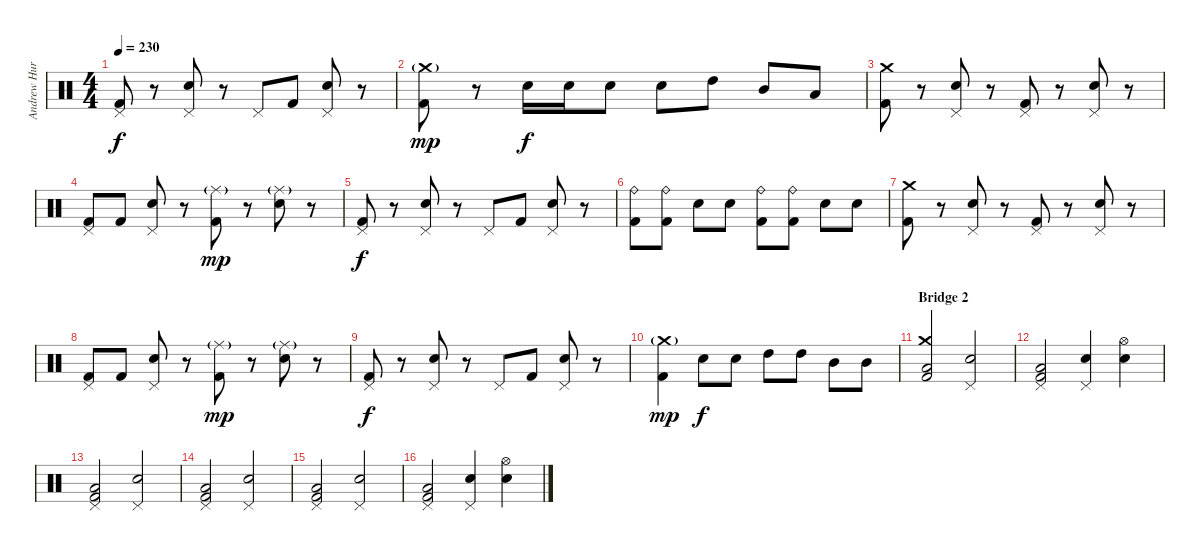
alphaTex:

\track ("Andrew Hurley (Drums)" "Andrew Hur") {instrument percussion}
\staff {score}
\articulation defaults
\ts (4 4)
\tempo 230
\clef neutral
\ks c
("Pedal Hi-Hat (hit)" "Kick (hit) 2").8{dy f} r.8 ("Pedal Hi-Hat (hit)" "Electric Snare (hit)").8 r.8 "Pedal Hi-Hat (hit)".8 "Kick (hit) 2".8 ("Pedal Hi-Hat (hit)" "Electric Snare (hit)").8 r.8 |
("Crash medium (hit)"{g} "Kick (hit) 2").8{dy mp} r.8 "Electric Snare (hit)".16{dy f} "Electric Snare (hit)".16 "Electric Snare (hit)".8 "Electric Snare (hit)".8 "High Tom (hit)".8 "Mid Tom (hit)".8 "Low Tom (hit)".8 |
("Crash medium (hit)" "Kick (hit) 2").8 r.8 ("Pedal Hi-Hat (hit)" "Electric Snare (hit)").8 r.8 ("Pedal Hi-Hat (hit)" "Kick (hit) 2").8 r.8 ("Pedal Hi-Hat (hit)" "Electric Snare (hit)").8 r.8 |
("Pedal Hi-Hat (hit)" "Kick (hit) 2").8 "Kick (hit) 2".8 ("Pedal Hi-Hat (hit)" "Electric Snare (hit)").8 r.8 ("Ride (middle)"{g} "Kick (hit) 2").8{dy mp} r.8 ("Ride (middle)"{g} "Electric Snare (hit)").8 r.8 |
("Pedal Hi-Hat (hit)" "Kick (hit) 2").8{dy f} r.8 ("Pedal Hi-Hat (hit)" "Electric Snare (hit)").8 r.8 "Pedal Hi-Hat (hit)".8 "Kick (hit) 2".8 ("Pedal Hi-Hat (hit)" "Electric Snare (hit)").8 r.8 |
("Ride (bell)" "Kick (hit) 2").8 ("Ride (bell)" "Kick (hit) 2").8 "Electric Snare (hit)".8 "Electric Snare (hit)".8 ("Ride (bell)" "Kick (hit) 2").8 ("Ride (bell)" "Kick (hit) 2").8 "Electric Snare (hit)".8 "Electric Snare (hit)".8 |
("Crash medium (hit)" "Kick (hit) 2").8 r.8 ("Pedal Hi-Hat (hit)" "Electric Snare (hit)").8 r.8 ("Pedal Hi-Hat (hit)" "Kick (hit) 2").8 r.8 ("Pedal Hi-Hat (hit)" "Electric Snare (hit)").8 r.8 |
("Pedal Hi-Hat (hit)" "Kick (hit) 2").8 "Kick (hit) 2".8 ("Pedal Hi-Hat (hit)" "Electric Snare (hit)").8 r.8 ("Ride (middle)"{g} "Kick (hit) 2").8{dy mp} r.8 ("Ride (middle)"{g} "Electric Snare (hit)").8 r.8 |
("Pedal Hi-Hat (hit)" "Kick (hit) 2").8{dy f} r.8 ("Pedal Hi-Hat (hit)" "Electric Snare (hit)").8 r.8 "Pedal Hi-Hat (hit)".8 "Kick (hit) 2".8 ("Pedal Hi-Hat (hit)" "Electric Snare (hit)").8 r.8 |
("Crash medium (hit)"{g} "Kick (hit) 2").4{dy mp} "Electric Snare (hit)".8{dy f} "Electric Snare (hit)".8 "High Tom (hit)".8 "High Tom (hit)".8 "Mid Tom (hit)".8 "Mid Tom (hit)".8 |
\section ("" "Bridge 2")
("Crash medium (hit)" "Low Floor Tom (hit)" "Kick (hit) 2").2 ("Pedal Hi-Hat (hit)" "Electric Snare (hit)").2 |
("Pedal Hi-Hat (hit)" "Low Floor Tom (hit)" "Kick (hit) 2").2 ("Pedal Hi-Hat (hit)" "Electric Snare (hit)").4 ("Hi-Hat (open)" "Electric Snare (hit)").4 |
("Pedal Hi-Hat (hit)" "Low Floor Tom (hit)" "Kick (hit) 2").2 ("Pedal Hi-Hat (hit)" "Electric Snare (hit)").2 |
("Pedal Hi-Hat (hit)" "Low Floor Tom (hit)" "Kick (hit) 2").2 ("Pedal Hi-Hat (hit)" "Electric Snare (hit)").2 |
("Pedal Hi-Hat (hit)" "Low Floor Tom (hit)" "Kick (hit) 2").2 ("Pedal Hi-Hat (hit)" "Electric Snare (hit)").2 |
("Pedal Hi-Hat (hit)" "Low Floor Tom (hit)" "Kick (hit) 2").2 ("Pedal Hi-Hat (hit)" "Electric Snare (hit)").4 ("Hi-Hat (open)" "Electric Snare (hit)").4
